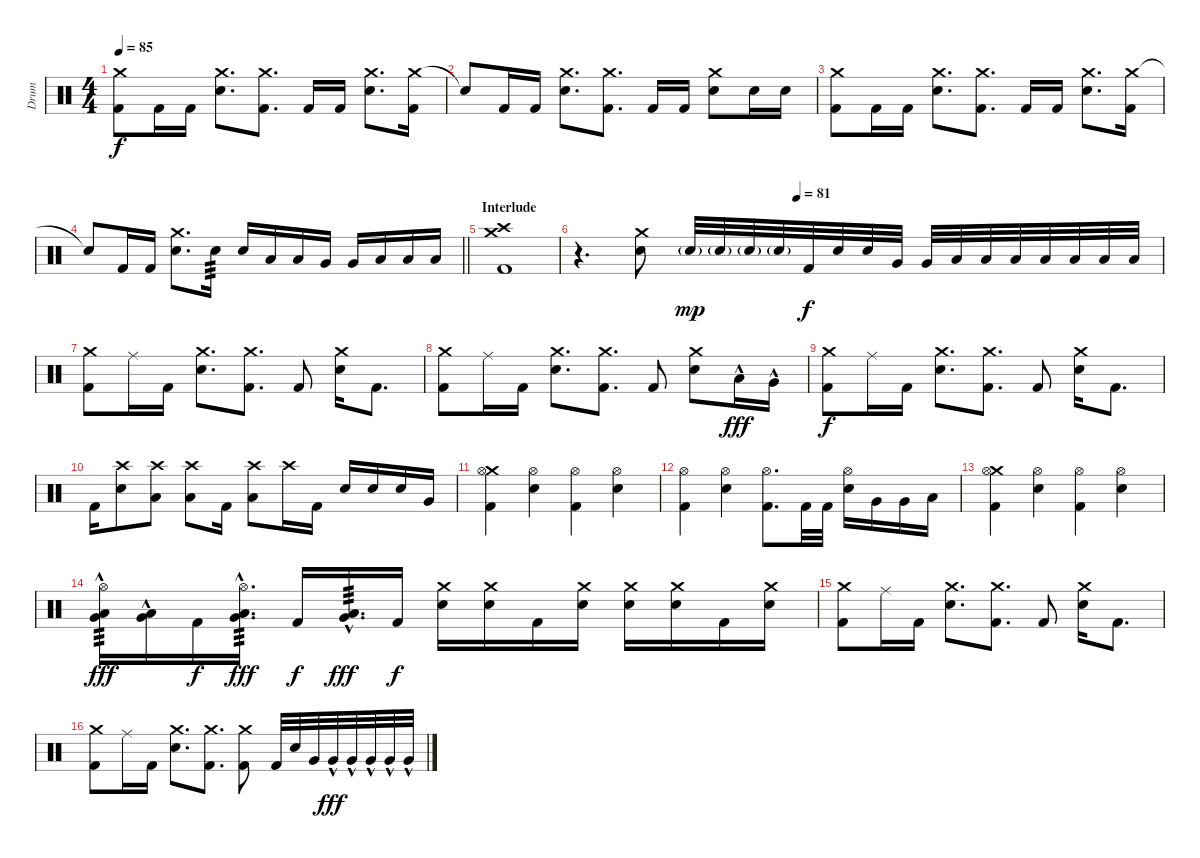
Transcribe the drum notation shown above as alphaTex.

\track ("Drum" "Drum") {instrument percussion}
\staff {score}
\articulation defaults
\ts (4 4)
\tempo 85
\clef neutral
\ks c
("Crash medium (hit)" "Kick (hit) 2").8{dy f} "Kick (hit) 2".16 "Kick (hit) 2".16 ("Crash medium (hit)" "Electric Snare (hit)").8{d} ("Crash medium (hit)" "Kick (hit) 2").8{d} "Kick (hit) 2".16 "Kick (hit) 2".16 ("Crash medium (hit)" "Electric Snare (hit)").8{d} ("Crash medium (hit)" "Kick (hit) 2").16 |
"Snare (hit)"{t}.8 "Kick (hit) 2".16 "Kick (hit) 2".16 ("Crash medium (hit)" "Electric Snare (hit)").8{d} ("Crash medium (hit)" "Kick (hit) 2").8{d} "Kick (hit) 2".16 "Kick (hit) 2".16 ("Crash medium (hit)" "Electric Snare (hit)").8 "Electric Snare (hit)".16 "Electric Snare (hit)".16 |
("Crash medium (hit)" "Kick (hit) 2").8 "Kick (hit) 2".16 "Kick (hit) 2".16 ("Crash medium (hit)" "Electric Snare (hit)").8{d} ("Crash medium (hit)" "Kick (hit) 2").8{d} "Kick (hit) 2".16 "Kick (hit) 2".16 ("Crash medium (hit)" "Electric Snare (hit)").8{d} ("Crash medium (hit)" "Kick (hit) 2").16 |
\barLineRight lightlight "Snare (hit)"{t}.8 "Kick (hit) 2".16 "Kick (hit) 2".16
("Crash medium (hit)" "Electric Snare (hit)").8{d} "Electric Snare (hit)".16{tp 3} "Electric Snare (hit)".16 "Low Tom (hit)".16 "Low Tom (hit)".16 "Very Low Tom (hit)".16 "Very Low Tom (hit)".16 "Low Floor Tom (hit)".16 "Low Floor Tom (hit)".16 "Low Floor Tom (hit)".16 |
\section ("" "Interlude")
("Crash medium (hit)" "Crash high (hit)" "Kick (hit) 2").1 |
\tempo (81 0.375)
r.4{d volume 11} ("Crash medium (hit)" "Electric Snare (hit)").8 "Snare (hit) 2"{g}.32{dy mp} "Snare (hit) 2"{g}.32 "Snare (hit) 2"{g}.32 "Snare (hit) 2"{g}.32 "Kick (hit) 2".32{dy f} "Electric Snare (hit)".32 "Electric Snare (hit)".32 "Very Low Tom (hit)".32 "Very Low Tom (hit)".32 "Low Tom (hit)".32 "Low Tom (hit)".32 "Low Floor Tom (hit)".32 "Low Floor Tom (hit)".32 "Low Floor Tom (hit)".32 "Low Floor Tom (hit)".32 "Low Floor Tom (hit)".32 |
("Crash medium (hit)" "Kick (hit) 2").8{volume 15} "Ride (middle)".16 "Kick (hit) 2".16 ("Crash medium (hit)" "Electric Snare (hit)").8{d} ("Crash medium (hit)" "Kick (hit) 2").8{d} "Kick (hit) 2".8 ("Crash medium (hit)" "Electric Snare (hit)").16 "Kick (hit) 2".8{d} |
("Crash medium (hit)" "Kick (hit) 2").8 "Ride (middle)".16 "Kick (hit) 2".16 ("Crash medium (hit)" "Electric Snare (hit)").8{d} ("Crash medium (hit)" "Kick (hit) 2").8{d} "Kick (hit) 2".8 ("Crash medium (hit)" "Electric Snare (hit)").8 "Low Tom (hit)"{hac}.16{dy fff} "Very Low Tom (hit)"{hac}.16 |
("Crash medium (hit)" "Kick (hit) 2").8{dy f} "Ride (middle)".16 "Kick (hit) 2".16 ("Crash medium (hit)" "Electric Snare (hit)").8{d} ("Crash medium (hit)" "Kick (hit) 2").8{d} "Kick (hit) 2".8 ("Crash medium (hit)" "Electric Snare (hit)").16 "Kick (hit) 2".8{d} |
"Kick (hit) 2".16 ("Crash high (hit)" "Electric Snare (hit)").8 ("Crash high (hit)" "Low Tom (hit)").8 ("Crash high (hit)" "Low Tom (hit)").8 "Kick (hit) 2".16 ("Crash high (hit)" "Low Tom (hit)").8 "Crash high (hit)".16 "Kick (hit) 2".16 "Electric Snare (hit)".16 "Electric Snare (hit)".16 "Electric Snare (hit)".16 "Very Low Tom (hit)".16 |
("Crash medium (hit)" "Hi-Hat (open)" "Kick (hit) 2").4 ("Hi-Hat (open)" "Electric Snare (hit)").4 ("Hi-Hat (open)" "Kick (hit) 2").4 ("Hi-Hat (open)" "Electric Snare (hit)").4 |
("Hi-Hat (open)" "Kick (hit) 2").4 ("Hi-Hat (open)" "Electric Snare (hit)").4 ("Hi-Hat (open)" "Kick (hit) 2").8{d} "Kick (hit) 2".32 "Kick (hit) 2".32 ("Hi-Hat (open)" "Electric Snare (hit)").16 "Very Low Tom (hit)".16 "Very Low Tom (hit)".16 "Low Floor Tom (hit)".16 |
("Crash medium (hit)" "Hi-Hat (open)" "Kick (hit) 2").4 ("Hi-Hat (open)" "Electric Snare (hit)").4 ("Hi-Hat (open)" "Kick (hit) 2").4 ("Hi-Hat (open)" "Electric Snare (hit)").4 |
("Hi-Hat (open)" "Low Tom (hit)"{hac} "Very Low Tom (hit)"{hac}).16{tp 3 dy fff} ("Low Tom (hit)"{hac} "Very Low Tom (hit)"{hac}).16 "Kick (hit) 2".16{dy f} ("Hi-Hat (open)" "Low Tom (hit)"{hac} "Very Low Tom (hit)"{hac}).16{d tp 3 dy fff} "Kick (hit) 2".16{dy f} ("Low Tom (hit)"{hac} "Very Low Tom (hit)"{hac}).16{d tp 3 dy fff} "Kick (hit) 2".16{dy f} ("Crash medium (hit)" "Electric Snare (hit)").16 ("Crash medium (hit)" "Electric Snare (hit)").16 "Kick (hit) 2".16 ("Crash medium (hit)" "Electric Snare (hit)").16 ("Crash medium (hit)" "Electric Snare (hit)").16 ("Crash medium (hit)" "Electric Snare (hit)").16 "Kick (hit) 2".16 ("Crash medium (hit)" "Electric Snare (hit)").16 |
("Crash medium (hit)" "Kick (hit) 2").8 "Ride (middle)".16 "Kick (hit) 2".16 ("Crash medium (hit)" "Electric Snare (hit)").8{d} ("Crash medium (hit)" "Kick (hit) 2").8{d} "Kick (hit) 2".8 ("Crash medium (hit)" "Electric Snare (hit)").16 "Kick (hit) 2".8{d} |
("Crash medium (hit)" "Kick (hit) 2").8 "Ride (middle)".16 "Kick (hit) 2".16 ("Crash medium (hit)" "Electric Snare (hit)").8{d} ("Crash medium (hit)" "Kick (hit) 2").8{d} ("Crash medium (hit)" "Kick (hit) 2").8 "Kick (hit) 2".32 "Electric Snare (hit)".32 "Very Low Tom (hit)".32 "Very Low Tom (hit)"{hac}.32{dy fff} "Very Low Tom (hit)"{hac}.32 "Very Low Tom (hit)"{hac}.32 "Very Low Tom (hit)"{hac}.32 "Very Low Tom (hit)"{hac}.32
